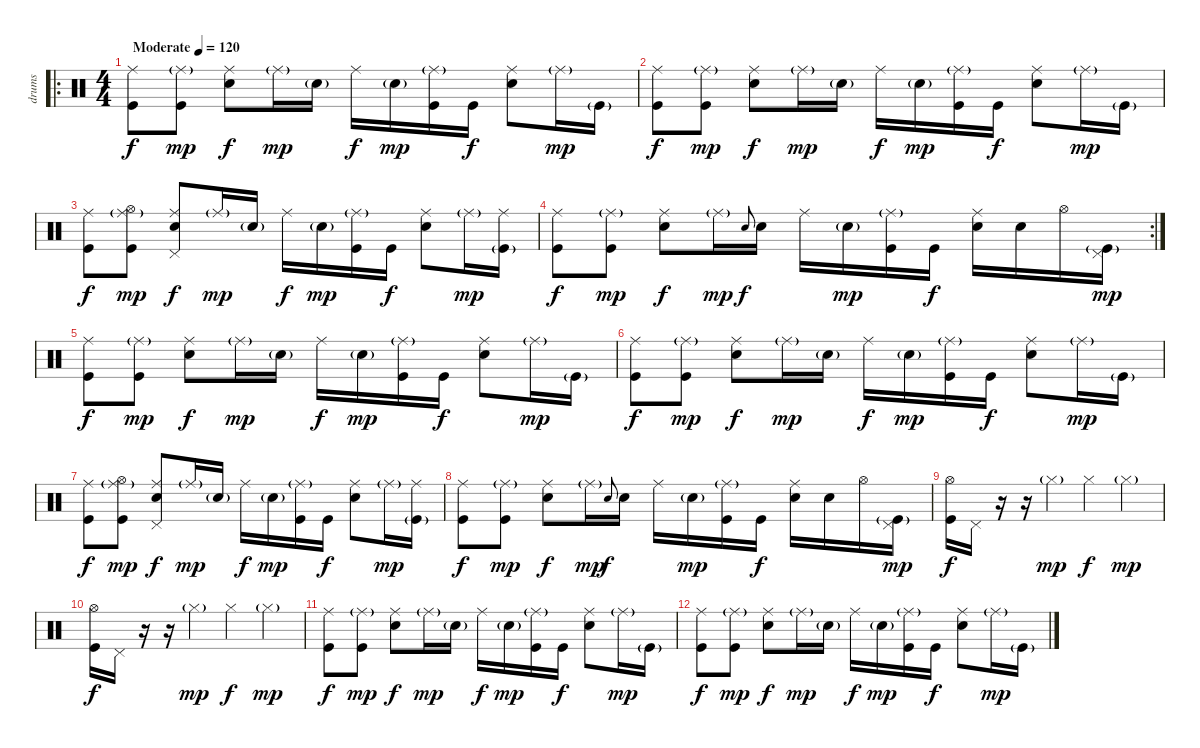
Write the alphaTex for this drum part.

\track ("drums" "drums") {instrument percussion}
\staff {score}
\articulation defaults
\ro
\ts (4 4)
\tempo (120 "Moderate")
\clef neutral
\ks c
("Ride (middle)" "Kick (hit)").8{dy f} ("Ride (middle)"{g} "Kick (hit)").8{dy mp} ("Ride (middle)" "Electric Snare (hit)").8{dy f} "Ride (middle)"{g}.16{dy mp} "Electric Snare (hit)"{g}.16 "Ride (middle)".16{dy f} "Electric Snare (hit)"{g}.16{dy mp} ("Ride (middle)"{g} "Kick (hit)").16 "Kick (hit)".16{dy f} ("Ride (middle)" "Electric Snare (hit)").8 "Ride (middle)"{g}.16{dy mp} "Kick (hit)"{g}.16 |
("Ride (middle)" "Kick (hit)").8{dy f} ("Ride (middle)"{g} "Kick (hit)").8{dy mp} ("Ride (middle)" "Electric Snare (hit)").8{dy f} "Ride (middle)"{g}.16{dy mp} "Electric Snare (hit)"{g}.16 "Ride (middle)".16{dy f} "Electric Snare (hit)"{g}.16{dy mp} ("Ride (middle)"{g} "Kick (hit)").16 "Kick (hit)".16{dy f} ("Ride (middle)" "Electric Snare (hit)").8 "Ride (middle)"{g}.16{dy mp} "Kick (hit)"{g}.16 |
("Ride (middle)" "Kick (hit)").8{dy f} ("Ride (middle)"{g} "Hi-Hat (open)" "Kick (hit)").8{dy mp} ("Ride (middle)" "Pedal Hi-Hat (hit)" "Electric Snare (hit)").8{dy f} "Ride (middle)"{g}.16{dy mp} "Electric Snare (hit)"{g}.16 "Ride (middle)".16{dy f} "Electric Snare (hit)"{g}.16{dy mp} ("Ride (middle)"{g} "Kick (hit)").16 "Kick (hit)".16{dy f} ("Ride (middle)" "Electric Snare (hit)").8 "Ride (middle)"{g}.16{dy mp} ("Ride (middle)" "Kick (hit)"{g}).16 |
\rc 2
("Ride (middle)" "Kick (hit)").8{dy f} ("Ride (middle)"{g} "Kick (hit)").8{dy mp} ("Ride (middle)" "Electric Snare (hit)").8{dy f} "Ride (middle)"{g}.16{dy mp} "Electric Snare (hit)".8{gr onbeat dy f} "Electric Snare (hit)".16 "Ride (middle)".16 "Electric Snare (hit)"{g}.16{dy mp} ("Ride (middle)"{g} "Kick (hit)").16 "Kick (hit)".16{dy f} ("Ride (middle)" "Electric Snare (hit)").16 "Electric Snare (hit)".16 "Hi-Hat (open)".16 ("Pedal Hi-Hat (hit)" "Kick (hit)"{g}).16{dy mp} |
("Ride (middle)" "Kick (hit)").8{dy f} ("Ride (middle)"{g} "Kick (hit)").8{dy mp} ("Ride (middle)" "Electric Snare (hit)").8{dy f} "Ride (middle)"{g}.16{dy mp} "Electric Snare (hit)"{g}.16 "Ride (middle)".16{dy f} "Electric Snare (hit)"{g}.16{dy mp} ("Ride (middle)"{g} "Kick (hit)").16 "Kick (hit)".16{dy f} ("Ride (middle)" "Electric Snare (hit)").8 "Ride (middle)"{g}.16{dy mp} "Kick (hit)"{g}.16 |
("Ride (middle)" "Kick (hit)").8{dy f} ("Ride (middle)"{g} "Kick (hit)").8{dy mp} ("Ride (middle)" "Electric Snare (hit)").8{dy f} "Ride (middle)"{g}.16{dy mp} "Electric Snare (hit)"{g}.16 "Ride (middle)".16{dy f} "Electric Snare (hit)"{g}.16{dy mp} ("Ride (middle)"{g} "Kick (hit)").16 "Kick (hit)".16{dy f} ("Ride (middle)" "Electric Snare (hit)").8 "Ride (middle)"{g}.16{dy mp} "Kick (hit)"{g}.16 |
("Ride (middle)" "Kick (hit)").8{dy f} ("Ride (middle)"{g} "Hi-Hat (open)" "Kick (hit)").8{dy mp} ("Ride (middle)" "Pedal Hi-Hat (hit)" "Electric Snare (hit)").8{dy f} "Ride (middle)"{g}.16{dy mp} "Electric Snare (hit)"{g}.16 "Ride (middle)".16{dy f} "Electric Snare (hit)"{g}.16{dy mp} ("Ride (middle)"{g} "Kick (hit)").16 "Kick (hit)".16{dy f} ("Ride (middle)" "Electric Snare (hit)").8 "Ride (middle)"{g}.16{dy mp} ("Ride (middle)" "Kick (hit)"{g}).16 |
("Ride (middle)" "Kick (hit)").8{dy f} ("Ride (middle)"{g} "Kick (hit)").8{dy mp} ("Ride (middle)" "Electric Snare (hit)").8{dy f} "Ride (middle)"{g}.16{dy mp} "Electric Snare (hit)".8{gr onbeat dy f} "Electric Snare (hit)".16 "Ride (middle)".16 "Electric Snare (hit)"{g}.16{dy mp} ("Ride (middle)"{g} "Kick (hit)").16 "Kick (hit)".16{dy f} ("Ride (middle)" "Electric Snare (hit)").16 "Electric Snare (hit)".16 "Hi-Hat (open)".16 ("Pedal Hi-Hat (hit)" "Kick (hit)"{g}).16{dy mp} |
("Hi-Hat (open)" "Kick (hit)").16{dy f} "Pedal Hi-Hat (hit)".16 r.16 r.16 "Hi-Hat (closed)"{g}.4{dy mp} "Hi-Hat (closed)".4{dy f} "Hi-Hat (closed)"{g}.4{dy mp} |
("Hi-Hat (open)" "Kick (hit)").16{dy f} "Pedal Hi-Hat (hit)".16 r.16 r.16 "Hi-Hat (closed)"{g}.4{dy mp} "Hi-Hat (closed)".4{dy f} "Hi-Hat (closed)"{g}.4{dy mp} |
("Ride (middle)" "Kick (hit)").8{dy f} ("Ride (middle)"{g} "Kick (hit)").8{dy mp} ("Ride (middle)" "Electric Snare (hit)").8{dy f} "Ride (middle)"{g}.16{dy mp} "Electric Snare (hit)"{g}.16 "Ride (middle)".16{dy f} "Electric Snare (hit)"{g}.16{dy mp} ("Ride (middle)"{g} "Kick (hit)").16 "Kick (hit)".16{dy f} ("Ride (middle)" "Electric Snare (hit)").8 "Ride (middle)"{g}.16{dy mp} "Kick (hit)"{g}.16 |
("Ride (middle)" "Kick (hit)").8{dy f} ("Ride (middle)"{g} "Kick (hit)").8{dy mp} ("Ride (middle)" "Electric Snare (hit)").8{dy f} "Ride (middle)"{g}.16{dy mp} "Electric Snare (hit)"{g}.16 "Ride (middle)".16{dy f} "Electric Snare (hit)"{g}.16{dy mp} ("Ride (middle)"{g} "Kick (hit)").16 "Kick (hit)".16{dy f} ("Ride (middle)" "Electric Snare (hit)").8 "Ride (middle)"{g}.16{dy mp} "Kick (hit)"{g}.16
